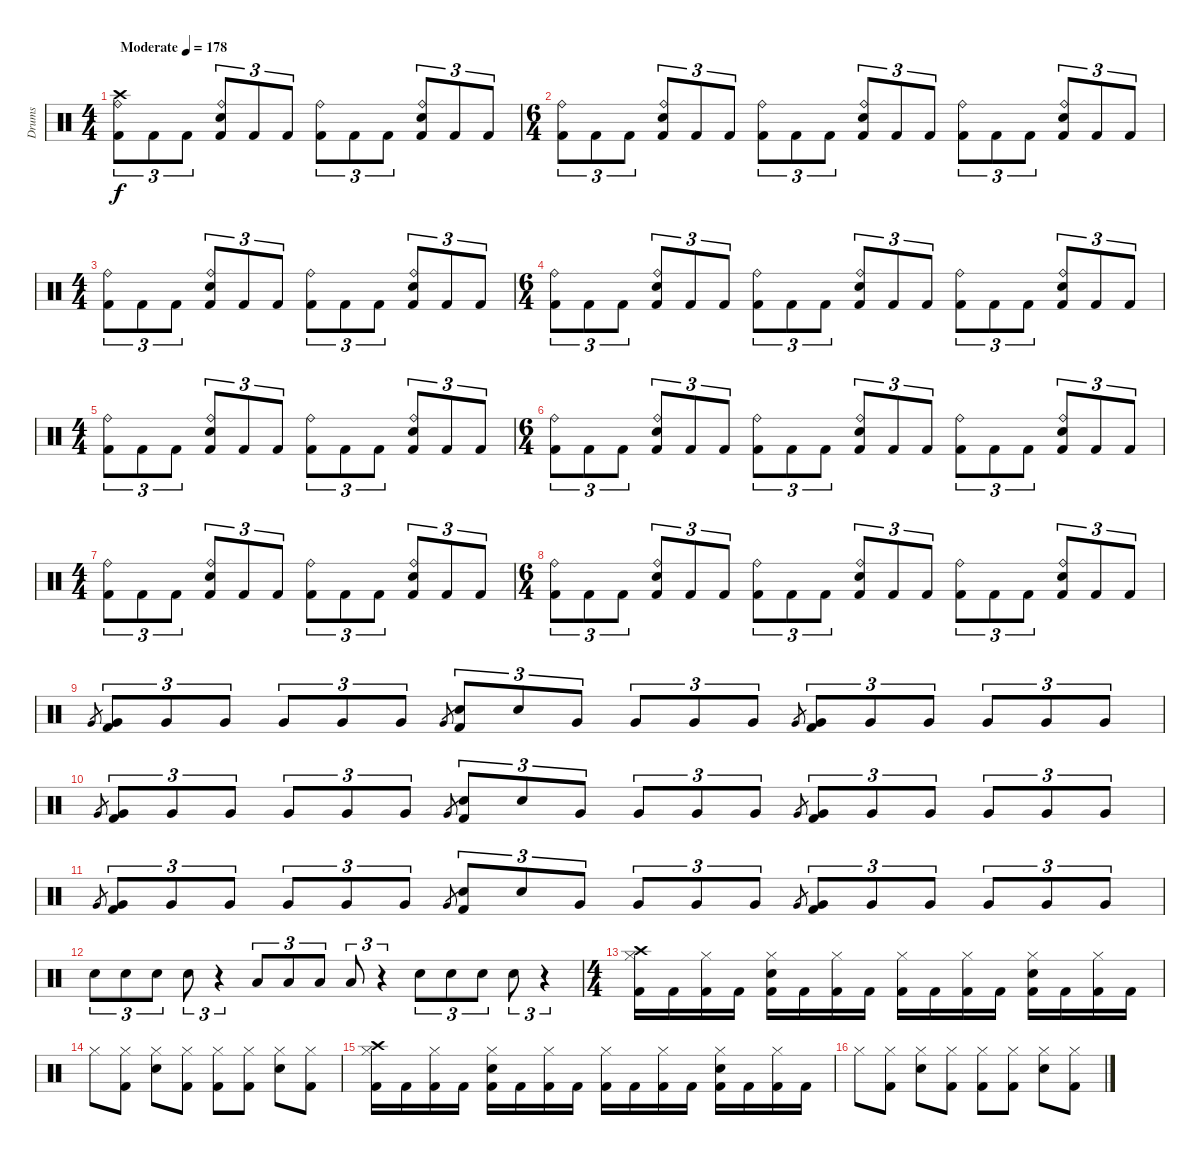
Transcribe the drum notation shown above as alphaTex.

\track ("Drums" "Drums") {instrument percussion}
\staff {score}
\articulation defaults
\ts (4 4)
\tempo (178 "Moderate")
\clef neutral
\ks c
("Kick (hit) 2" "Ride (bell)" "Crash high (hit)").8{tu (3 2) dy f} "Kick (hit) 2".8{tu (3 2)} "Kick (hit) 2".8{tu (3 2)} ("Kick (hit) 2" "Snare (hit) 2" "Ride (bell)").8{tu (3 2)} "Kick (hit) 2".8{tu (3 2)} "Kick (hit) 2".8{tu (3 2)} ("Kick (hit) 2" "Ride (bell)").8{tu (3 2)} "Kick (hit) 2".8{tu (3 2)} "Kick (hit) 2".8{tu (3 2)} ("Kick (hit) 2" "Snare (hit) 2" "Ride (bell)").8{tu (3 2)} "Kick (hit) 2".8{tu (3 2)} "Kick (hit) 2".8{tu (3 2)} |
\ts (6 4)
("Kick (hit) 2" "Ride (bell)").8{tu (3 2)} "Kick (hit) 2".8{tu (3 2)} "Kick (hit) 2".8{tu (3 2)} ("Kick (hit) 2" "Snare (hit) 2" "Ride (bell)").8{tu (3 2)} "Kick (hit) 2".8{tu (3 2)} "Kick (hit) 2".8{tu (3 2)} ("Kick (hit) 2" "Ride (bell)").8{tu (3 2)} "Kick (hit) 2".8{tu (3 2)} "Kick (hit) 2".8{tu (3 2)} ("Kick (hit) 2" "Snare (hit) 2" "Ride (bell)").8{tu (3 2)} "Kick (hit) 2".8{tu (3 2)} "Kick (hit) 2".8{tu (3 2)} ("Kick (hit) 2" "Ride (bell)").8{tu (3 2)} "Kick (hit) 2".8{tu (3 2)} "Kick (hit) 2".8{tu (3 2)} ("Kick (hit) 2" "Snare (hit) 2" "Ride (bell)").8{tu (3 2)} "Kick (hit) 2".8{tu (3 2)} "Kick (hit) 2".8{tu (3 2)} |
\ts (4 4)
("Kick (hit) 2" "Ride (bell)").8{tu (3 2)} "Kick (hit) 2".8{tu (3 2)} "Kick (hit) 2".8{tu (3 2)} ("Kick (hit) 2" "Snare (hit) 2" "Ride (bell)").8{tu (3 2)} "Kick (hit) 2".8{tu (3 2)} "Kick (hit) 2".8{tu (3 2)} ("Kick (hit) 2" "Ride (bell)").8{tu (3 2)} "Kick (hit) 2".8{tu (3 2)} "Kick (hit) 2".8{tu (3 2)} ("Kick (hit) 2" "Snare (hit) 2" "Ride (bell)").8{tu (3 2)} "Kick (hit) 2".8{tu (3 2)} "Kick (hit) 2".8{tu (3 2)} |
\ts (6 4)
("Kick (hit) 2" "Ride (bell)").8{tu (3 2)} "Kick (hit) 2".8{tu (3 2)} "Kick (hit) 2".8{tu (3 2)} ("Kick (hit) 2" "Snare (hit) 2" "Ride (bell)").8{tu (3 2)} "Kick (hit) 2".8{tu (3 2)} "Kick (hit) 2".8{tu (3 2)} ("Kick (hit) 2" "Ride (bell)").8{tu (3 2)} "Kick (hit) 2".8{tu (3 2)} "Kick (hit) 2".8{tu (3 2)} ("Kick (hit) 2" "Snare (hit) 2" "Ride (bell)").8{tu (3 2)} "Kick (hit) 2".8{tu (3 2)} "Kick (hit) 2".8{tu (3 2)} ("Kick (hit) 2" "Ride (bell)").8{tu (3 2)} "Kick (hit) 2".8{tu (3 2)} "Kick (hit) 2".8{tu (3 2)} ("Kick (hit) 2" "Snare (hit) 2" "Ride (bell)").8{tu (3 2)} "Kick (hit) 2".8{tu (3 2)} "Kick (hit) 2".8{tu (3 2)} |
\ts (4 4)
("Kick (hit) 2" "Ride (bell)").8{tu (3 2)} "Kick (hit) 2".8{tu (3 2)} "Kick (hit) 2".8{tu (3 2)} ("Kick (hit) 2" "Snare (hit) 2" "Ride (bell)").8{tu (3 2)} "Kick (hit) 2".8{tu (3 2)} "Kick (hit) 2".8{tu (3 2)} ("Kick (hit) 2" "Ride (bell)").8{tu (3 2)} "Kick (hit) 2".8{tu (3 2)} "Kick (hit) 2".8{tu (3 2)} ("Kick (hit) 2" "Snare (hit) 2" "Ride (bell)").8{tu (3 2)} "Kick (hit) 2".8{tu (3 2)} "Kick (hit) 2".8{tu (3 2)} |
\ts (6 4)
("Kick (hit) 2" "Ride (bell)").8{tu (3 2)} "Kick (hit) 2".8{tu (3 2)} "Kick (hit) 2".8{tu (3 2)} ("Kick (hit) 2" "Snare (hit) 2" "Ride (bell)").8{tu (3 2)} "Kick (hit) 2".8{tu (3 2)} "Kick (hit) 2".8{tu (3 2)} ("Kick (hit) 2" "Ride (bell)").8{tu (3 2)} "Kick (hit) 2".8{tu (3 2)} "Kick (hit) 2".8{tu (3 2)} ("Kick (hit) 2" "Snare (hit) 2" "Ride (bell)").8{tu (3 2)} "Kick (hit) 2".8{tu (3 2)} "Kick (hit) 2".8{tu (3 2)} ("Kick (hit) 2" "Ride (bell)").8{tu (3 2)} "Kick (hit) 2".8{tu (3 2)} "Kick (hit) 2".8{tu (3 2)} ("Kick (hit) 2" "Snare (hit) 2" "Ride (bell)").8{tu (3 2)} "Kick (hit) 2".8{tu (3 2)} "Kick (hit) 2".8{tu (3 2)} |
\ts (4 4)
("Kick (hit) 2" "Ride (bell)").8{tu (3 2)} "Kick (hit) 2".8{tu (3 2)} "Kick (hit) 2".8{tu (3 2)} ("Kick (hit) 2" "Snare (hit) 2" "Ride (bell)").8{tu (3 2)} "Kick (hit) 2".8{tu (3 2)} "Kick (hit) 2".8{tu (3 2)} ("Kick (hit) 2" "Ride (bell)").8{tu (3 2)} "Kick (hit) 2".8{tu (3 2)} "Kick (hit) 2".8{tu (3 2)} ("Kick (hit) 2" "Snare (hit) 2" "Ride (bell)").8{tu (3 2)} "Kick (hit) 2".8{tu (3 2)} "Kick (hit) 2".8{tu (3 2)} |
\ts (6 4)
("Kick (hit) 2" "Ride (bell)").8{tu (3 2)} "Kick (hit) 2".8{tu (3 2)} "Kick (hit) 2".8{tu (3 2)} ("Kick (hit) 2" "Snare (hit) 2" "Ride (bell)").8{tu (3 2)} "Kick (hit) 2".8{tu (3 2)} "Kick (hit) 2".8{tu (3 2)} ("Kick (hit) 2" "Ride (bell)").8{tu (3 2)} "Kick (hit) 2".8{tu (3 2)} "Kick (hit) 2".8{tu (3 2)} ("Kick (hit) 2" "Snare (hit) 2" "Ride (bell)").8{tu (3 2)} "Kick (hit) 2".8{tu (3 2)} "Kick (hit) 2".8{tu (3 2)} ("Kick (hit) 2" "Ride (bell)").8{tu (3 2)} "Kick (hit) 2".8{tu (3 2)} "Kick (hit) 2".8{tu (3 2)} ("Kick (hit) 2" "Snare (hit) 2" "Ride (bell)").8{tu (3 2)} "Kick (hit) 2".8{tu (3 2)} "Kick (hit) 2".8{tu (3 2)} |
"Very Low Tom (hit)".8{gr} ("Kick (hit) 2" "Very Low Tom (hit)").8{tu (3 2)} "Very Low Tom (hit)".8{tu (3 2)} "Very Low Tom (hit)".8{tu (3 2)} "Very Low Tom (hit)".8{tu (3 2)} "Very Low Tom (hit)".8{tu (3 2)} "Very Low Tom (hit)".8{tu (3 2)} "Very Low Tom (hit)".8{gr} ("Kick (hit) 2" "Snare (hit) 2").8{tu (3 2)} "Snare (hit) 2".8{tu (3 2)} "Very Low Tom (hit)".8{tu (3 2)} "Very Low Tom (hit)".8{tu (3 2)} "Very Low Tom (hit)".8{tu (3 2)} "Very Low Tom (hit)".8{tu (3 2)} "Very Low Tom (hit)".8{gr} ("Kick (hit) 2" "Very Low Tom (hit)").8{tu (3 2)} "Very Low Tom (hit)".8{tu (3 2)} "Very Low Tom (hit)".8{tu (3 2)} "Very Low Tom (hit)".8{tu (3 2)} "Very Low Tom (hit)".8{tu (3 2)} "Very Low Tom (hit)".8{tu (3 2)} |
"Very Low Tom (hit)".8{gr} ("Kick (hit) 2" "Very Low Tom (hit)").8{tu (3 2)} "Very Low Tom (hit)".8{tu (3 2)} "Very Low Tom (hit)".8{tu (3 2)} "Very Low Tom (hit)".8{tu (3 2)} "Very Low Tom (hit)".8{tu (3 2)} "Very Low Tom (hit)".8{tu (3 2)} "Very Low Tom (hit)".8{gr} ("Kick (hit) 2" "Snare (hit) 2").8{tu (3 2)} "Snare (hit) 2".8{tu (3 2)} "Very Low Tom (hit)".8{tu (3 2)} "Very Low Tom (hit)".8{tu (3 2)} "Very Low Tom (hit)".8{tu (3 2)} "Very Low Tom (hit)".8{tu (3 2)} "Very Low Tom (hit)".8{gr} ("Kick (hit) 2" "Very Low Tom (hit)").8{tu (3 2)} "Very Low Tom (hit)".8{tu (3 2)} "Very Low Tom (hit)".8{tu (3 2)} "Very Low Tom (hit)".8{tu (3 2)} "Very Low Tom (hit)".8{tu (3 2)} "Very Low Tom (hit)".8{tu (3 2)} |
"Very Low Tom (hit)".8{gr} ("Kick (hit) 2" "Very Low Tom (hit)").8{tu (3 2)} "Very Low Tom (hit)".8{tu (3 2)} "Very Low Tom (hit)".8{tu (3 2)} "Very Low Tom (hit)".8{tu (3 2)} "Very Low Tom (hit)".8{tu (3 2)} "Very Low Tom (hit)".8{tu (3 2)} "Very Low Tom (hit)".8{gr} ("Kick (hit) 2" "Snare (hit) 2").8{tu (3 2)} "Snare (hit) 2".8{tu (3 2)} "Very Low Tom (hit)".8{tu (3 2)} "Very Low Tom (hit)".8{tu (3 2)} "Very Low Tom (hit)".8{tu (3 2)} "Very Low Tom (hit)".8{tu (3 2)} "Very Low Tom (hit)".8{gr} ("Kick (hit) 2" "Very Low Tom (hit)").8{tu (3 2)} "Very Low Tom (hit)".8{tu (3 2)} "Very Low Tom (hit)".8{tu (3 2)} "Very Low Tom (hit)".8{tu (3 2)} "Very Low Tom (hit)".8{tu (3 2)} "Very Low Tom (hit)".8{tu (3 2)} |
"Snare (hit) 2".8{tu (3 2)} "Snare (hit) 2".8{tu (3 2)} "Snare (hit) 2".8{tu (3 2)} "Snare (hit) 2".8{tu (3 2)} r.4{tu (3 2)} "Low Floor Tom (hit)".8{tu (3 2)} "Low Floor Tom (hit)".8{tu (3 2)} "Low Floor Tom (hit)".8{tu (3 2)} "Low Floor Tom (hit)".8{tu (3 2)} r.4{tu (3 2)} "Snare (hit) 2".8{tu (3 2)} "Snare (hit) 2".8{tu (3 2)} "Snare (hit) 2".8{tu (3 2)} "Snare (hit) 2".8{tu (3 2)} r.4{tu (3 2)} |
\ts (4 4)
("Kick (hit) 2" "Hi-Hat (closed)" "Crash high (hit)").16 "Kick (hit) 2".16 ("Kick (hit) 2" "Hi-Hat (closed)").16 "Kick (hit) 2".16 ("Kick (hit) 2" "Snare (hit) 2" "Hi-Hat (closed)").16 "Kick (hit) 2".16 ("Kick (hit) 2" "Hi-Hat (closed)").16 "Kick (hit) 2".16 ("Kick (hit) 2" "Hi-Hat (closed)").16 "Kick (hit) 2".16 ("Kick (hit) 2" "Hi-Hat (closed)").16 "Kick (hit) 2".16 ("Kick (hit) 2" "Snare (hit) 2" "Hi-Hat (closed)").16 "Kick (hit) 2".16 ("Kick (hit) 2" "Hi-Hat (closed)").16 "Kick (hit) 2".16 |
"Hi-Hat (closed)".8 ("Kick (hit) 2" "Hi-Hat (closed)").8 ("Snare (hit) 2" "Hi-Hat (closed)").8 ("Kick (hit) 2" "Hi-Hat (closed)").8 ("Kick (hit) 2" "Hi-Hat (closed)").8 ("Kick (hit) 2" "Hi-Hat (closed)").8 ("Snare (hit) 2" "Hi-Hat (closed)").8 ("Kick (hit) 2" "Hi-Hat (closed)").8 |
("Kick (hit) 2" "Hi-Hat (closed)" "Crash high (hit)").16 "Kick (hit) 2".16 ("Kick (hit) 2" "Hi-Hat (closed)").16 "Kick (hit) 2".16 ("Kick (hit) 2" "Snare (hit) 2" "Hi-Hat (closed)").16 "Kick (hit) 2".16 ("Kick (hit) 2" "Hi-Hat (closed)").16 "Kick (hit) 2".16 ("Kick (hit) 2" "Hi-Hat (closed)").16 "Kick (hit) 2".16 ("Kick (hit) 2" "Hi-Hat (closed)").16 "Kick (hit) 2".16 ("Kick (hit) 2" "Snare (hit) 2" "Hi-Hat (closed)").16 "Kick (hit) 2".16 ("Kick (hit) 2" "Hi-Hat (closed)").16 "Kick (hit) 2".16 |
"Hi-Hat (closed)".8 ("Kick (hit) 2" "Hi-Hat (closed)").8 ("Snare (hit) 2" "Hi-Hat (closed)").8 ("Kick (hit) 2" "Hi-Hat (closed)").8 ("Kick (hit) 2" "Hi-Hat (closed)").8 ("Kick (hit) 2" "Hi-Hat (closed)").8 ("Snare (hit) 2" "Hi-Hat (closed)").8 ("Kick (hit) 2" "Hi-Hat (closed)").8
